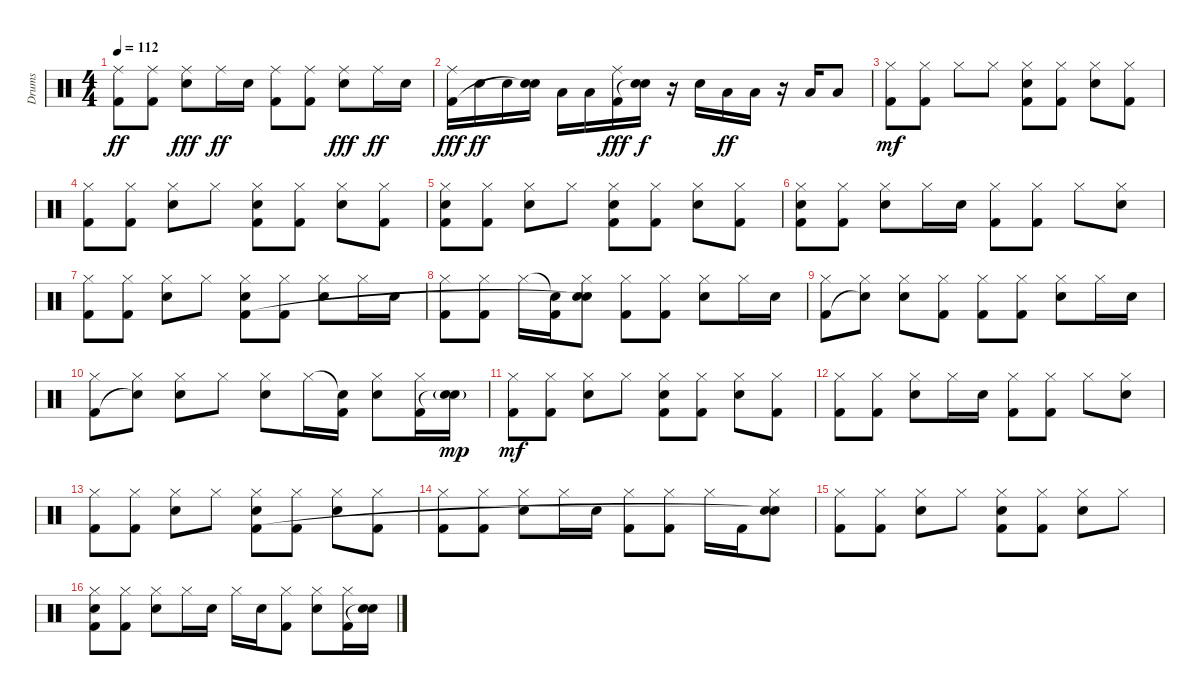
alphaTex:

\track ("Drums" "Drums") {instrument percussion}
\staff {score}
\articulation defaults
\ts (4 4)
\tempo 112
\clef neutral
\ks c
("Ride (middle)" "Kick (hit) 2").8{dy ff} ("Ride (middle)" "Kick (hit) 2").8 ("Ride (middle)" "Electric Snare (hit)").8{dy fff} "Ride (middle)".16{dy ff} "Electric Snare (hit)".16 ("Ride (middle)" "Kick (hit) 2").8 ("Ride (middle)" "Kick (hit) 2").8 ("Ride (middle)" "Electric Snare (hit)").8{dy fff} "Ride (middle)".16{dy ff} "Electric Snare (hit)".16 |
("Ride (middle)" "Kick (hit) 2").16{dy fff} "Electric Snare (hit)".16{dy ff} "Electric Snare (hit)".16 ("Electric Snare (hit)" "Snare (hit)"{t}).16 "Low Tom (hit)".16 "Low Tom (hit)".16 ("Ride (middle)" "Kick (hit) 2").16{dy fff} ("Electric Snare (hit)" "Snare (hit)"{t}).16{dy f} r.16 "Electric Snare (hit)".16 "Low Tom (hit)".16{dy ff} "Low Tom (hit)".16 r.16 "Low Tom (hit)".16 "Low Tom (hit)".8 |
("Hi-Hat (closed)" "Kick (hit) 2").8{dy mf} ("Hi-Hat (closed)" "Kick (hit) 2").8 "Hi-Hat (closed)".8 "Hi-Hat (closed)".8 ("Hi-Hat (closed)" "Electric Snare (hit)" "Kick (hit) 2").8 ("Hi-Hat (closed)" "Kick (hit) 2").8 ("Hi-Hat (closed)" "Electric Snare (hit)").8 ("Hi-Hat (closed)" "Kick (hit) 2").8 |
("Hi-Hat (closed)" "Kick (hit) 2").8 ("Hi-Hat (closed)" "Kick (hit) 2").8 ("Hi-Hat (closed)" "Electric Snare (hit)").8 "Hi-Hat (closed)".8 ("Hi-Hat (closed)" "Electric Snare (hit)" "Kick (hit) 2").8 ("Hi-Hat (closed)" "Kick (hit) 2").8 ("Hi-Hat (closed)" "Electric Snare (hit)").8 ("Hi-Hat (closed)" "Kick (hit) 2").8 |
("Hi-Hat (closed)" "Electric Snare (hit)" "Kick (hit) 2").8 ("Hi-Hat (closed)" "Kick (hit) 2").8 ("Hi-Hat (closed)" "Electric Snare (hit)").8 "Hi-Hat (closed)".8 ("Hi-Hat (closed)" "Electric Snare (hit)" "Kick (hit) 2").8 ("Hi-Hat (closed)" "Kick (hit) 2").8 ("Hi-Hat (closed)" "Electric Snare (hit)").8 ("Hi-Hat (closed)" "Kick (hit) 2").8 |
("Hi-Hat (closed)" "Electric Snare (hit)" "Kick (hit) 2").8 ("Hi-Hat (closed)" "Kick (hit) 2").8 ("Hi-Hat (closed)" "Electric Snare (hit)").8 "Hi-Hat (closed)".16 "Electric Snare (hit)".16 ("Hi-Hat (closed)" "Kick (hit) 2").8 ("Hi-Hat (closed)" "Kick (hit) 2").8 "Hi-Hat (closed)".8 ("Hi-Hat (closed)" "Electric Snare (hit)").8 |
("Hi-Hat (closed)" "Kick (hit) 2").8 ("Hi-Hat (closed)" "Kick (hit) 2").8 ("Hi-Hat (closed)" "Electric Snare (hit)").8 "Hi-Hat (closed)".8 ("Hi-Hat (closed)" "Electric Snare (hit)" "Kick (hit) 2").8 ("Hi-Hat (closed)" "Kick (hit) 2").8 ("Hi-Hat (closed)" "Electric Snare (hit)").8 "Hi-Hat (closed)".16 "Electric Snare (hit)".16 |
("Hi-Hat (closed)" "Kick (hit) 2").8 ("Hi-Hat (closed)" "Kick (hit) 2").8 "Hi-Hat (closed)".16 ("Snare (hit)"{t} "Kick (hit) 2").16 ("Hi-Hat (closed)" "Electric Snare (hit)" "Snare (hit)"{t}).8 ("Hi-Hat (closed)" "Kick (hit) 2").8 ("Hi-Hat (closed)" "Kick (hit) 2").8 ("Hi-Hat (closed)" "Electric Snare (hit)").8 "Hi-Hat (closed)".16 "Electric Snare (hit)".16 |
("Hi-Hat (closed)" "Kick (hit) 2").8 ("Hi-Hat (closed)" "Snare (hit)"{t}).8 ("Hi-Hat (closed)" "Electric Snare (hit)").8 ("Hi-Hat (closed)" "Kick (hit) 2").8 ("Hi-Hat (closed)" "Kick (hit) 2").8 ("Hi-Hat (closed)" "Kick (hit) 2").8 ("Hi-Hat (closed)" "Electric Snare (hit)").8 "Hi-Hat (closed)".16 "Electric Snare (hit)".16 |
("Hi-Hat (closed)" "Kick (hit) 2").8 ("Hi-Hat (closed)" "Snare (hit)"{t}).8 ("Hi-Hat (closed)" "Electric Snare (hit)").8 "Hi-Hat (closed)".8 ("Hi-Hat (closed)" "Electric Snare (hit)").8 "Hi-Hat (closed)".16 ("Snare (hit)"{t} "Kick (hit) 2").16 ("Hi-Hat (closed)" "Electric Snare (hit)").8 ("Hi-Hat (closed)" "Kick (hit) 2").16 ("Electric Snare (hit)"{g} "Snare (hit)"{t}).16{dy mp} |
("Hi-Hat (closed)" "Kick (hit) 2").8{dy mf} ("Hi-Hat (closed)" "Kick (hit) 2").8 ("Hi-Hat (closed)" "Electric Snare (hit)").8 "Hi-Hat (closed)".8 ("Hi-Hat (closed)" "Electric Snare (hit)" "Kick (hit) 2").8 ("Hi-Hat (closed)" "Kick (hit) 2").8 ("Hi-Hat (closed)" "Electric Snare (hit)").8 ("Hi-Hat (closed)" "Kick (hit) 2").8 |
("Hi-Hat (closed)" "Kick (hit) 2").8 ("Hi-Hat (closed)" "Kick (hit) 2").8 ("Hi-Hat (closed)" "Electric Snare (hit)").8 "Hi-Hat (closed)".16 "Electric Snare (hit)".16 ("Hi-Hat (closed)" "Kick (hit) 2").8 ("Hi-Hat (closed)" "Kick (hit) 2").8 "Hi-Hat (closed)".8 ("Hi-Hat (closed)" "Electric Snare (hit)").8 |
("Hi-Hat (closed)" "Kick (hit) 2").8 ("Hi-Hat (closed)" "Kick (hit) 2").8 ("Hi-Hat (closed)" "Electric Snare (hit)").8 "Hi-Hat (closed)".8 ("Hi-Hat (closed)" "Electric Snare (hit)" "Kick (hit) 2").8 ("Hi-Hat (closed)" "Kick (hit) 2").8 ("Hi-Hat (closed)" "Electric Snare (hit)").8 ("Hi-Hat (closed)" "Kick (hit) 2").8 |
("Hi-Hat (closed)" "Kick (hit) 2").8 ("Hi-Hat (closed)" "Kick (hit) 2").8 ("Hi-Hat (closed)" "Electric Snare (hit)").8 "Hi-Hat (closed)".16 "Electric Snare (hit)".16 ("Hi-Hat (closed)" "Kick (hit) 2").8 ("Hi-Hat (closed)" "Kick (hit) 2").8 "Hi-Hat (closed)".16 "Kick (hit) 2".16 ("Hi-Hat (closed)" "Electric Snare (hit)" "Snare (hit)"{t}).8 |
("Hi-Hat (closed)" "Kick (hit) 2").8 ("Hi-Hat (closed)" "Kick (hit) 2").8 ("Hi-Hat (closed)" "Electric Snare (hit)").8 "Hi-Hat (closed)".8 ("Hi-Hat (closed)" "Electric Snare (hit)" "Kick (hit) 2").8 ("Hi-Hat (closed)" "Kick (hit) 2").8 ("Hi-Hat (closed)" "Electric Snare (hit)").8 "Hi-Hat (closed)".8 |
("Hi-Hat (closed)" "Electric Snare (hit)" "Kick (hit) 2").8 ("Hi-Hat (closed)" "Kick (hit) 2").8 ("Hi-Hat (closed)" "Electric Snare (hit)").8 "Hi-Hat (closed)".16 "Electric Snare (hit)".16 "Hi-Hat (closed)".16 "Electric Snare (hit)".16 ("Hi-Hat (closed)" "Kick (hit) 2").8 ("Hi-Hat (closed)" "Electric Snare (hit)").8 ("Hi-Hat (closed)" "Kick (hit) 2").16 ("Electric Snare (hit)" "Snare (hit)"{t}).16
